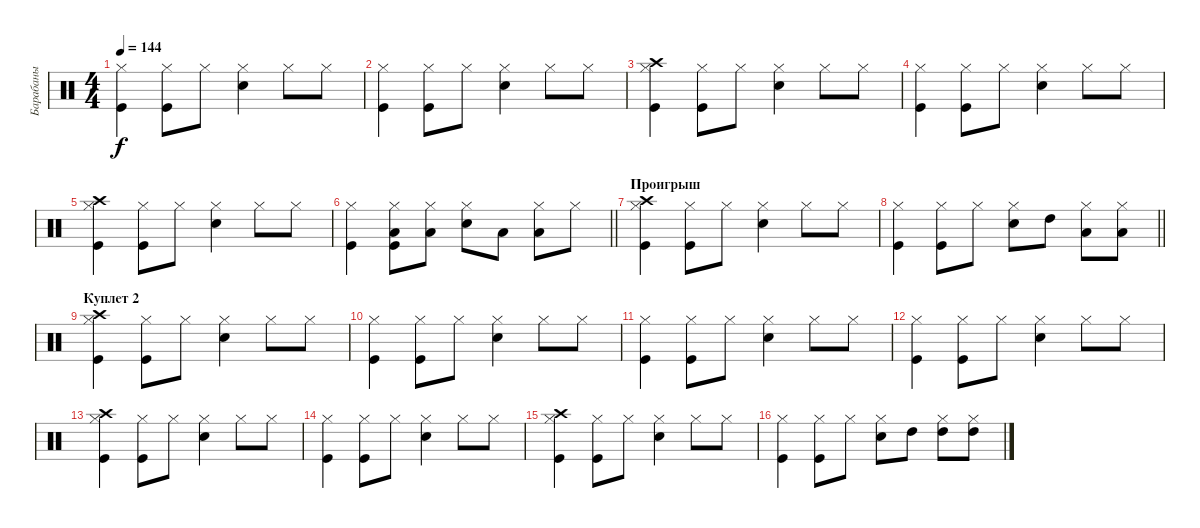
\track ("Барабаны" "Барабаны") {instrument percussion}
\staff {score}
\articulation defaults
\ts (4 4)
\tempo 144
\clef neutral
\ks c
("Kick (hit)" "Hi-Hat (closed)").4{dy f} ("Kick (hit)" "Hi-Hat (closed)").8 "Hi-Hat (closed)".8 ("Snare (hit) 2" "Hi-Hat (closed)").4 "Hi-Hat (closed)".8 "Hi-Hat (closed)".8 |
("Kick (hit)" "Hi-Hat (closed)").4 ("Kick (hit)" "Hi-Hat (closed)").8 "Hi-Hat (closed)".8 ("Snare (hit) 2" "Hi-Hat (closed)").4 "Hi-Hat (closed)".8 "Hi-Hat (closed)".8 |
("Kick (hit)" "Hi-Hat (closed)" "Crash high (hit)").4 ("Kick (hit)" "Hi-Hat (closed)").8 "Hi-Hat (closed)".8 ("Snare (hit) 2" "Hi-Hat (closed)").4 "Hi-Hat (closed)".8 "Hi-Hat (closed)".8 |
("Kick (hit)" "Hi-Hat (closed)").4 ("Kick (hit)" "Hi-Hat (closed)").8 "Hi-Hat (closed)".8 ("Snare (hit) 2" "Hi-Hat (closed)").4 "Hi-Hat (closed)".8 "Hi-Hat (closed)".8 |
("Kick (hit)" "Hi-Hat (closed)" "Crash high (hit)").4 ("Kick (hit)" "Hi-Hat (closed)").8 "Hi-Hat (closed)".8 ("Snare (hit) 2" "Hi-Hat (closed)").4 "Hi-Hat (closed)".8 "Hi-Hat (closed)".8 |
\barLineRight lightlight
("Kick (hit)" "Hi-Hat (closed)").4 ("Kick (hit)" "Hi-Hat (closed)" "Low Tom (hit)").8 ("Hi-Hat (closed)" "Low Tom (hit)").8 ("Snare (hit) 2" "Hi-Hat (closed)").8 "Low Tom (hit)".8 ("Hi-Hat (closed)" "Low Tom (hit)").8 "Hi-Hat (closed)".8 |
\section ("" "Проигрыш")
("Kick (hit)" "Hi-Hat (closed)" "Crash high (hit)").4 ("Kick (hit)" "Hi-Hat (closed)").8 "Hi-Hat (closed)".8 ("Snare (hit) 2" "Hi-Hat (closed)").4 "Hi-Hat (closed)".8 "Hi-Hat (closed)".8 |
\barLineRight lightlight
("Kick (hit)" "Hi-Hat (closed)").4 ("Kick (hit)" "Hi-Hat (closed)").8 "Hi-Hat (closed)".8 ("Snare (hit) 2" "Hi-Hat (closed)").8 "High Tom (hit)".8 ("Hi-Hat (closed)" "Low Tom (hit)").8 ("Hi-Hat (closed)" "Low Tom (hit)").8 |
\section ("" "Куплет 2")
("Kick (hit)" "Hi-Hat (closed)" "Crash high (hit)").4 ("Kick (hit)" "Hi-Hat (closed)").8 "Hi-Hat (closed)".8 ("Snare (hit) 2" "Hi-Hat (closed)").4 "Hi-Hat (closed)".8 "Hi-Hat (closed)".8 |
("Kick (hit)" "Hi-Hat (closed)").4 ("Kick (hit)" "Hi-Hat (closed)").8 "Hi-Hat (closed)".8 ("Snare (hit) 2" "Hi-Hat (closed)").4 "Hi-Hat (closed)".8 "Hi-Hat (closed)".8 |
("Kick (hit)" "Hi-Hat (closed)").4 ("Kick (hit)" "Hi-Hat (closed)").8 "Hi-Hat (closed)".8 ("Snare (hit) 2" "Hi-Hat (closed)").4 "Hi-Hat (closed)".8 "Hi-Hat (closed)".8 |
("Kick (hit)" "Hi-Hat (closed)").4 ("Kick (hit)" "Hi-Hat (closed)").8 "Hi-Hat (closed)".8 ("Snare (hit) 2" "Hi-Hat (closed)").4 "Hi-Hat (closed)".8 "Hi-Hat (closed)".8 |
("Kick (hit)" "Hi-Hat (closed)" "Crash high (hit)").4 ("Kick (hit)" "Hi-Hat (closed)").8 "Hi-Hat (closed)".8 ("Snare (hit) 2" "Hi-Hat (closed)").4 "Hi-Hat (closed)".8 "Hi-Hat (closed)".8 |
("Kick (hit)" "Hi-Hat (closed)").4 ("Kick (hit)" "Hi-Hat (closed)").8 "Hi-Hat (closed)".8 ("Snare (hit) 2" "Hi-Hat (closed)").4 "Hi-Hat (closed)".8 "Hi-Hat (closed)".8 |
("Kick (hit)" "Hi-Hat (closed)" "Crash high (hit)").4 ("Kick (hit)" "Hi-Hat (closed)").8 "Hi-Hat (closed)".8 ("Snare (hit) 2" "Hi-Hat (closed)").4 "Hi-Hat (closed)".8 "Hi-Hat (closed)".8 |
("Kick (hit)" "Hi-Hat (closed)").4 ("Kick (hit)" "Hi-Hat (closed)").8 "Hi-Hat (closed)".8 ("Snare (hit) 2" "Hi-Hat (closed)").8 "High Tom (hit)".8 ("Hi-Hat (closed)" "High Tom (hit)").8 ("Hi-Hat (closed)" "High Tom (hit)").8
